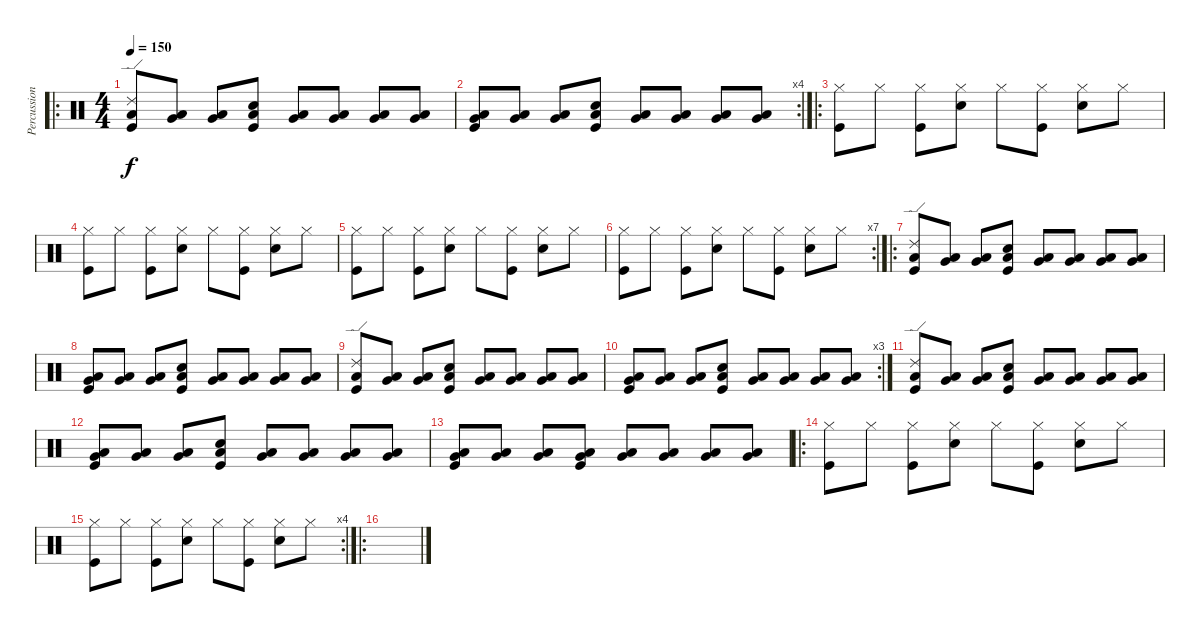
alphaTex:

\track ("Percussions" "Percussion") {instrument percussion}
\staff {score}
\articulation defaults
\ro
\ts (4 4)
\tempo 150
\clef neutral
\ks c
("Kick (hit)" "Low Floor Tom (hit)" "Ride (edge) 2").8{dy f} ("Low Floor Tom (hit)" "Very Low Tom (hit)").8 ("Low Floor Tom (hit)" "Very Low Tom (hit)").8 ("Kick (hit)" "Low Floor Tom (hit)" "Electric Snare (hit)").8 ("Low Floor Tom (hit)" "Very Low Tom (hit)").8 ("Low Floor Tom (hit)" "Very Low Tom (hit)").8 ("Low Floor Tom (hit)" "Very Low Tom (hit)").8 ("Low Floor Tom (hit)" "Very Low Tom (hit)").8 |
\rc 4
("Kick (hit)" "Low Floor Tom (hit)" "Very Low Tom (hit)").8 ("Low Floor Tom (hit)" "Very Low Tom (hit)").8 ("Low Floor Tom (hit)" "Very Low Tom (hit)").8 ("Kick (hit)" "Low Floor Tom (hit)" "Electric Snare (hit)").8 ("Low Floor Tom (hit)" "Very Low Tom (hit)").8 ("Low Floor Tom (hit)" "Very Low Tom (hit)").8 ("Low Floor Tom (hit)" "Very Low Tom (hit)").8 ("Low Floor Tom (hit)" "Very Low Tom (hit)").8 |
\ro
("Hi-Hat (closed)" "Kick (hit)").8 "Hi-Hat (closed)".8 ("Hi-Hat (closed)" "Kick (hit)").8 ("Hi-Hat (closed)" "Electric Snare (hit)").8 "Hi-Hat (closed)".8 ("Hi-Hat (closed)" "Kick (hit)").8 ("Hi-Hat (closed)" "Electric Snare (hit)").8 "Hi-Hat (closed)".8 |
("Hi-Hat (closed)" "Kick (hit)").8 "Hi-Hat (closed)".8 ("Hi-Hat (closed)" "Kick (hit)").8 ("Hi-Hat (closed)" "Electric Snare (hit)").8 "Hi-Hat (closed)".8 ("Hi-Hat (closed)" "Kick (hit)").8 ("Hi-Hat (closed)" "Electric Snare (hit)").8 "Hi-Hat (closed)".8 |
("Hi-Hat (closed)" "Kick (hit)").8 "Hi-Hat (closed)".8 ("Hi-Hat (closed)" "Kick (hit)").8 ("Hi-Hat (closed)" "Electric Snare (hit)").8 "Hi-Hat (closed)".8 ("Hi-Hat (closed)" "Kick (hit)").8 ("Hi-Hat (closed)" "Electric Snare (hit)").8 "Hi-Hat (closed)".8 |
\rc 7
("Hi-Hat (closed)" "Kick (hit)").8 "Hi-Hat (closed)".8 ("Hi-Hat (closed)" "Kick (hit)").8 ("Hi-Hat (closed)" "Electric Snare (hit)").8 "Hi-Hat (closed)".8 ("Hi-Hat (closed)" "Kick (hit)").8 ("Hi-Hat (closed)" "Electric Snare (hit)").8 "Hi-Hat (closed)".8 |
\ro
("Kick (hit)" "Low Floor Tom (hit)" "Ride (edge) 2").8 ("Low Floor Tom (hit)" "Very Low Tom (hit)").8 ("Low Floor Tom (hit)" "Very Low Tom (hit)").8 ("Kick (hit)" "Low Floor Tom (hit)" "Electric Snare (hit)").8 ("Low Floor Tom (hit)" "Very Low Tom (hit)").8 ("Low Floor Tom (hit)" "Very Low Tom (hit)").8 ("Low Floor Tom (hit)" "Very Low Tom (hit)").8 ("Low Floor Tom (hit)" "Very Low Tom (hit)").8 |
("Kick (hit)" "Low Floor Tom (hit)" "Very Low Tom (hit)").8 ("Low Floor Tom (hit)" "Very Low Tom (hit)").8 ("Low Floor Tom (hit)" "Very Low Tom (hit)").8 ("Kick (hit)" "Low Floor Tom (hit)" "Electric Snare (hit)").8 ("Low Floor Tom (hit)" "Very Low Tom (hit)").8 ("Low Floor Tom (hit)" "Very Low Tom (hit)").8 ("Low Floor Tom (hit)" "Very Low Tom (hit)").8 ("Low Floor Tom (hit)" "Very Low Tom (hit)").8 |
("Kick (hit)" "Low Floor Tom (hit)" "Ride (edge) 2").8 ("Low Floor Tom (hit)" "Very Low Tom (hit)").8 ("Low Floor Tom (hit)" "Very Low Tom (hit)").8 ("Kick (hit)" "Low Floor Tom (hit)" "Electric Snare (hit)").8 ("Low Floor Tom (hit)" "Very Low Tom (hit)").8 ("Low Floor Tom (hit)" "Very Low Tom (hit)").8 ("Low Floor Tom (hit)" "Very Low Tom (hit)").8 ("Low Floor Tom (hit)" "Very Low Tom (hit)").8 |
\rc 3
("Kick (hit)" "Low Floor Tom (hit)" "Very Low Tom (hit)").8 ("Low Floor Tom (hit)" "Very Low Tom (hit)").8 ("Low Floor Tom (hit)" "Very Low Tom (hit)").8 ("Kick (hit)" "Low Floor Tom (hit)" "Electric Snare (hit)").8 ("Low Floor Tom (hit)" "Very Low Tom (hit)").8 ("Low Floor Tom (hit)" "Very Low Tom (hit)").8 ("Low Floor Tom (hit)" "Very Low Tom (hit)").8 ("Low Floor Tom (hit)" "Very Low Tom (hit)").8 |
("Kick (hit)" "Low Floor Tom (hit)" "Ride (edge) 2").8 ("Low Floor Tom (hit)" "Very Low Tom (hit)").8 ("Low Floor Tom (hit)" "Very Low Tom (hit)").8 ("Kick (hit)" "Low Floor Tom (hit)" "Electric Snare (hit)").8 ("Low Floor Tom (hit)" "Very Low Tom (hit)").8 ("Low Floor Tom (hit)" "Very Low Tom (hit)").8 ("Low Floor Tom (hit)" "Very Low Tom (hit)").8 ("Low Floor Tom (hit)" "Very Low Tom (hit)").8 |
("Kick (hit)" "Low Floor Tom (hit)" "Very Low Tom (hit)").8 ("Low Floor Tom (hit)" "Very Low Tom (hit)").8 ("Low Floor Tom (hit)" "Very Low Tom (hit)").8 ("Kick (hit)" "Low Floor Tom (hit)" "Electric Snare (hit)").8 ("Low Floor Tom (hit)" "Very Low Tom (hit)").8 ("Low Floor Tom (hit)" "Very Low Tom (hit)").8 ("Low Floor Tom (hit)" "Very Low Tom (hit)").8 ("Low Floor Tom (hit)" "Very Low Tom (hit)").8 |
("Kick (hit)" "Low Floor Tom (hit)" "Very Low Tom (hit)").8 ("Low Floor Tom (hit)" "Very Low Tom (hit)").8 ("Low Floor Tom (hit)" "Very Low Tom (hit)").8 ("Kick (hit)" "Low Floor Tom (hit)" "Very Low Tom (hit)").8 ("Low Floor Tom (hit)" "Very Low Tom (hit)").8 ("Low Floor Tom (hit)" "Very Low Tom (hit)").8 ("Low Floor Tom (hit)" "Very Low Tom (hit)").8 ("Low Floor Tom (hit)" "Very Low Tom (hit)").8 |
\ro
("Hi-Hat (closed)" "Kick (hit)").8 "Hi-Hat (closed)".8 ("Hi-Hat (closed)" "Kick (hit)").8 ("Hi-Hat (closed)" "Electric Snare (hit)").8 "Hi-Hat (closed)".8 ("Hi-Hat (closed)" "Kick (hit)").8 ("Hi-Hat (closed)" "Electric Snare (hit)").8 "Hi-Hat (closed)".8 |
\rc 4
("Hi-Hat (closed)" "Kick (hit)").8 "Hi-Hat (closed)".8 ("Hi-Hat (closed)" "Kick (hit)").8 ("Hi-Hat (closed)" "Electric Snare (hit)").8 "Hi-Hat (closed)".8 ("Hi-Hat (closed)" "Kick (hit)").8 ("Hi-Hat (closed)" "Electric Snare (hit)").8 "Hi-Hat (closed)".8 |
\ro
